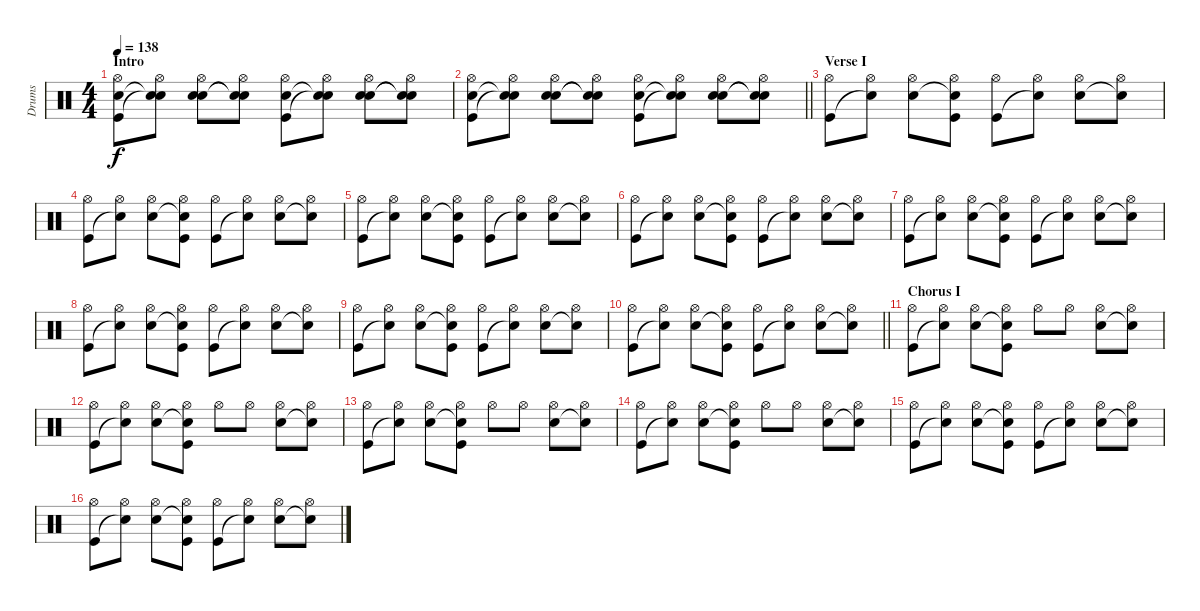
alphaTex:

\track ("Drums" "Drums") {instrument percussion}
\staff {score}
\articulation defaults
\ts (4 4)
\section ("" "Intro")
\tempo 138
\clef neutral
\ks c
("Hi-Hat (open)" "Hand Clap (hit)" "Kick (hit)").8{dy f} ("Hi-Hat (open)" "Snare (hit)"{t} "Snare (hit)"{t}).8 ("Hi-Hat (open)" "Hand Clap (hit)" "Snare (hit) 2").8 ("Hi-Hat (open)" "Snare (hit)"{t} "Snare (hit)"{t}).8 ("Hi-Hat (open)" "Hand Clap (hit)" "Kick (hit)").8 ("Hi-Hat (open)" "Snare (hit)"{t} "Snare (hit)"{t}).8 ("Hi-Hat (open)" "Hand Clap (hit)" "Snare (hit) 2").8 ("Hi-Hat (open)" "Snare (hit)"{t} "Snare (hit)"{t}).8 |
\barLineRight lightlight
("Hi-Hat (open)" "Hand Clap (hit)" "Kick (hit)").8 ("Hi-Hat (open)" "Snare (hit)"{t} "Snare (hit)"{t}).8 ("Hi-Hat (open)" "Hand Clap (hit)" "Snare (hit) 2").8 ("Hi-Hat (open)" "Snare (hit)"{t} "Snare (hit)"{t}).8 ("Hi-Hat (open)" "Hand Clap (hit)" "Kick (hit)").8 ("Hi-Hat (open)" "Snare (hit)"{t} "Snare (hit)"{t}).8 ("Hi-Hat (open)" "Hand Clap (hit)" "Snare (hit) 2").8 ("Hi-Hat (open)" "Snare (hit)"{t} "Snare (hit)"{t}).8 |
\section ("" "Verse I")
("Hi-Hat (open)" "Kick (hit)").8 ("Hi-Hat (open)" "Snare (hit)"{t}).8 ("Hi-Hat (open)" "Snare (hit) 2").8 ("Hi-Hat (open)" "Snare (hit)"{t} "Kick (hit)").8 ("Hi-Hat (open)" "Kick (hit)").8 ("Hi-Hat (open)" "Snare (hit)"{t}).8 ("Hi-Hat (open)" "Snare (hit) 2").8 ("Hi-Hat (open)" "Snare (hit)"{t}).8 |
("Hi-Hat (open)" "Kick (hit)").8 ("Hi-Hat (open)" "Snare (hit)"{t}).8 ("Hi-Hat (open)" "Snare (hit) 2").8 ("Hi-Hat (open)" "Snare (hit)"{t} "Kick (hit)").8 ("Hi-Hat (open)" "Kick (hit)").8 ("Hi-Hat (open)" "Snare (hit)"{t}).8 ("Hi-Hat (open)" "Snare (hit) 2").8 ("Hi-Hat (open)" "Snare (hit)"{t}).8 |
("Hi-Hat (open)" "Kick (hit)").8 ("Hi-Hat (open)" "Snare (hit)"{t}).8 ("Hi-Hat (open)" "Snare (hit) 2").8 ("Hi-Hat (open)" "Snare (hit)"{t} "Kick (hit)").8 ("Hi-Hat (open)" "Kick (hit)").8 ("Hi-Hat (open)" "Snare (hit)"{t}).8 ("Hi-Hat (open)" "Snare (hit) 2").8 ("Hi-Hat (open)" "Snare (hit)"{t}).8 |
("Hi-Hat (open)" "Kick (hit)").8 ("Hi-Hat (open)" "Snare (hit)"{t}).8 ("Hi-Hat (open)" "Snare (hit) 2").8 ("Hi-Hat (open)" "Snare (hit)"{t} "Kick (hit)").8 ("Hi-Hat (open)" "Kick (hit)").8 ("Hi-Hat (open)" "Snare (hit)"{t}).8 ("Hi-Hat (open)" "Snare (hit) 2").8 ("Hi-Hat (open)" "Snare (hit)"{t}).8 |
("Hi-Hat (open)" "Kick (hit)").8 ("Hi-Hat (open)" "Snare (hit)"{t}).8 ("Hi-Hat (open)" "Snare (hit) 2").8 ("Hi-Hat (open)" "Snare (hit)"{t} "Kick (hit)").8 ("Hi-Hat (open)" "Kick (hit)").8 ("Hi-Hat (open)" "Snare (hit)"{t}).8 ("Hi-Hat (open)" "Snare (hit) 2").8 ("Hi-Hat (open)" "Snare (hit)"{t}).8 |
("Hi-Hat (open)" "Kick (hit)").8 ("Hi-Hat (open)" "Snare (hit)"{t}).8 ("Hi-Hat (open)" "Snare (hit) 2").8 ("Hi-Hat (open)" "Snare (hit)"{t} "Kick (hit)").8 ("Hi-Hat (open)" "Kick (hit)").8 ("Hi-Hat (open)" "Snare (hit)"{t}).8 ("Hi-Hat (open)" "Snare (hit) 2").8 ("Hi-Hat (open)" "Snare (hit)"{t}).8 |
("Hi-Hat (open)" "Kick (hit)").8 ("Hi-Hat (open)" "Snare (hit)"{t}).8 ("Hi-Hat (open)" "Snare (hit) 2").8 ("Hi-Hat (open)" "Snare (hit)"{t} "Kick (hit)").8 ("Hi-Hat (open)" "Kick (hit)").8 ("Hi-Hat (open)" "Snare (hit)"{t}).8 ("Hi-Hat (open)" "Snare (hit) 2").8 ("Hi-Hat (open)" "Snare (hit)"{t}).8 |
\barLineRight lightlight
("Hi-Hat (open)" "Kick (hit)").8 ("Hi-Hat (open)" "Snare (hit)"{t}).8 ("Hi-Hat (open)" "Snare (hit) 2").8 ("Hi-Hat (open)" "Snare (hit)"{t} "Kick (hit)").8 ("Hi-Hat (open)" "Kick (hit)").8 ("Hi-Hat (open)" "Snare (hit)"{t}).8 ("Hi-Hat (open)" "Snare (hit) 2").8 ("Hi-Hat (open)" "Snare (hit)"{t}).8 |
\section ("" "Chorus I")
("Hi-Hat (open)" "Kick (hit)").8 ("Hi-Hat (open)" "Snare (hit)"{t}).8 ("Hi-Hat (open)" "Snare (hit) 2").8 ("Hi-Hat (open)" "Snare (hit)"{t} "Kick (hit)").8 "Hi-Hat (open)".8 "Hi-Hat (open)".8 ("Hi-Hat (open)" "Snare (hit) 2").8 ("Hi-Hat (open)" "Snare (hit)"{t}).8 |
("Hi-Hat (open)" "Kick (hit)").8 ("Hi-Hat (open)" "Snare (hit)"{t}).8 ("Hi-Hat (open)" "Snare (hit) 2").8 ("Hi-Hat (open)" "Snare (hit)"{t} "Kick (hit)").8 "Hi-Hat (open)".8 "Hi-Hat (open)".8 ("Hi-Hat (open)" "Snare (hit) 2").8 ("Hi-Hat (open)" "Snare (hit)"{t}).8 |
("Hi-Hat (open)" "Kick (hit)").8 ("Hi-Hat (open)" "Snare (hit)"{t}).8 ("Hi-Hat (open)" "Snare (hit) 2").8 ("Hi-Hat (open)" "Snare (hit)"{t} "Kick (hit)").8 "Hi-Hat (open)".8 "Hi-Hat (open)".8 ("Hi-Hat (open)" "Snare (hit) 2").8 ("Hi-Hat (open)" "Snare (hit)"{t}).8 |
("Hi-Hat (open)" "Kick (hit)").8 ("Hi-Hat (open)" "Snare (hit)"{t}).8 ("Hi-Hat (open)" "Snare (hit) 2").8 ("Hi-Hat (open)" "Snare (hit)"{t} "Kick (hit)").8 "Hi-Hat (open)".8 "Hi-Hat (open)".8 ("Hi-Hat (open)" "Snare (hit) 2").8 ("Hi-Hat (open)" "Snare (hit)"{t}).8 |
("Hi-Hat (open)" "Kick (hit)").8 ("Hi-Hat (open)" "Snare (hit)"{t}).8 ("Hi-Hat (open)" "Snare (hit) 2").8 ("Hi-Hat (open)" "Snare (hit)"{t} "Kick (hit)").8 ("Hi-Hat (open)" "Kick (hit)").8 ("Hi-Hat (open)" "Snare (hit)"{t}).8 ("Hi-Hat (open)" "Snare (hit) 2").8 ("Hi-Hat (open)" "Snare (hit)"{t}).8 |
("Hi-Hat (open)" "Kick (hit)").8 ("Hi-Hat (open)" "Snare (hit)"{t}).8 ("Hi-Hat (open)" "Snare (hit) 2").8 ("Hi-Hat (open)" "Snare (hit)"{t} "Kick (hit)").8 ("Hi-Hat (open)" "Kick (hit)").8 ("Hi-Hat (open)" "Snare (hit)"{t}).8 ("Hi-Hat (open)" "Snare (hit) 2").8 ("Hi-Hat (open)" "Snare (hit)"{t}).8
